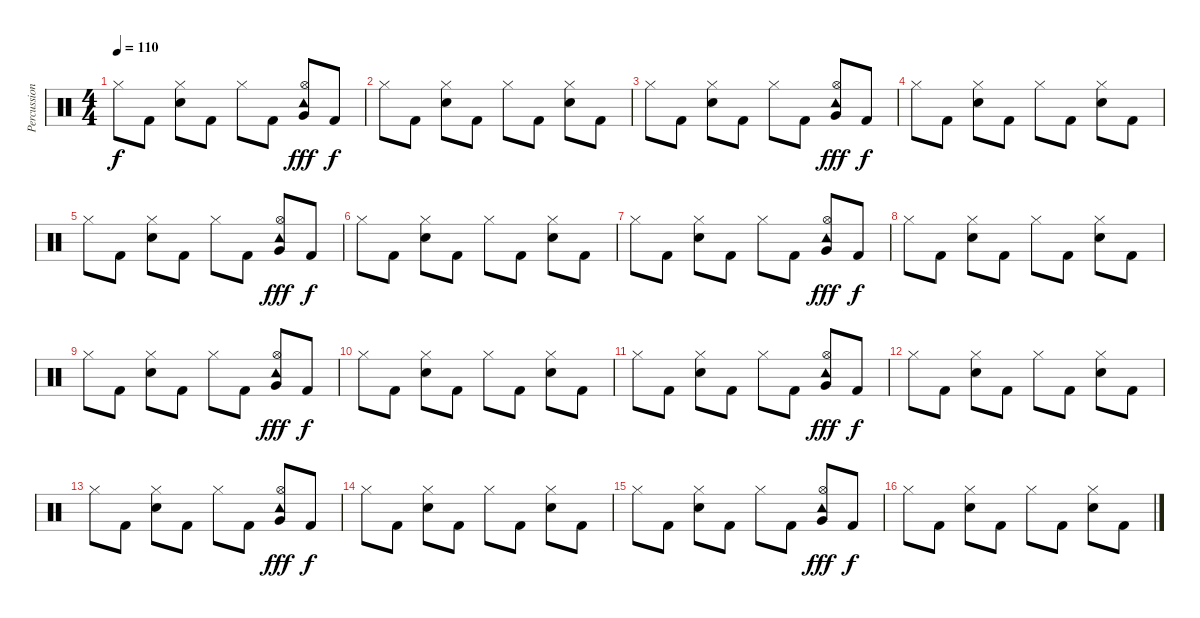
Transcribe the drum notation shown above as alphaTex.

\track ("Percussion" "Percussion") {instrument percussion}
\staff {score}
\articulation defaults
\ts (4 4)
\tempo 110
\clef neutral
\ks aminor "Hi-Hat (closed)".8{dy f} "Kick (hit) 2".8
("Hi-Hat (closed)" "Electric Snare (hit)").8 "Kick (hit) 2".8 "Hi-Hat (closed)".8 "Kick (hit) 2".8 ("Tambourine (hit)" "Hi-Hat (open)" "Very Low Tom (hit)").8{dy fff} "Kick (hit) 2".8{dy f} |
"Hi-Hat (closed)".8 "Kick (hit) 2".8 ("Hi-Hat (closed)" "Electric Snare (hit)").8 "Kick (hit) 2".8 "Hi-Hat (closed)".8 "Kick (hit) 2".8 ("Hi-Hat (closed)" "Electric Snare (hit)").8 "Kick (hit) 2".8 |
"Hi-Hat (closed)".8 "Kick (hit) 2".8 ("Hi-Hat (closed)" "Electric Snare (hit)").8 "Kick (hit) 2".8 "Hi-Hat (closed)".8 "Kick (hit) 2".8 ("Tambourine (hit)" "Hi-Hat (open)" "Very Low Tom (hit)").8{dy fff} "Kick (hit) 2".8{dy f} |
"Hi-Hat (closed)".8 "Kick (hit) 2".8 ("Hi-Hat (closed)" "Electric Snare (hit)").8 "Kick (hit) 2".8 "Hi-Hat (closed)".8 "Kick (hit) 2".8 ("Hi-Hat (closed)" "Electric Snare (hit)").8 "Kick (hit) 2".8 |
"Hi-Hat (closed)".8 "Kick (hit) 2".8 ("Hi-Hat (closed)" "Electric Snare (hit)").8 "Kick (hit) 2".8 "Hi-Hat (closed)".8 "Kick (hit) 2".8 ("Tambourine (hit)" "Hi-Hat (open)" "Very Low Tom (hit)").8{dy fff} "Kick (hit) 2".8{dy f} |
"Hi-Hat (closed)".8 "Kick (hit) 2".8 ("Hi-Hat (closed)" "Electric Snare (hit)").8 "Kick (hit) 2".8 "Hi-Hat (closed)".8 "Kick (hit) 2".8 ("Hi-Hat (closed)" "Electric Snare (hit)").8 "Kick (hit) 2".8 |
"Hi-Hat (closed)".8 "Kick (hit) 2".8 ("Hi-Hat (closed)" "Electric Snare (hit)").8 "Kick (hit) 2".8 "Hi-Hat (closed)".8 "Kick (hit) 2".8 ("Tambourine (hit)" "Hi-Hat (open)" "Very Low Tom (hit)").8{dy fff} "Kick (hit) 2".8{dy f} |
"Hi-Hat (closed)".8 "Kick (hit) 2".8 ("Hi-Hat (closed)" "Electric Snare (hit)").8 "Kick (hit) 2".8 "Hi-Hat (closed)".8 "Kick (hit) 2".8 ("Hi-Hat (closed)" "Electric Snare (hit)").8 "Kick (hit) 2".8 |
"Hi-Hat (closed)".8 "Kick (hit) 2".8 ("Hi-Hat (closed)" "Electric Snare (hit)").8 "Kick (hit) 2".8 "Hi-Hat (closed)".8 "Kick (hit) 2".8 ("Tambourine (hit)" "Hi-Hat (open)" "Very Low Tom (hit)").8{dy fff} "Kick (hit) 2".8{dy f} |
"Hi-Hat (closed)".8{volume 4} "Kick (hit) 2".8 ("Hi-Hat (closed)" "Electric Snare (hit)").8 "Kick (hit) 2".8 "Hi-Hat (closed)".8 "Kick (hit) 2".8 ("Hi-Hat (closed)" "Electric Snare (hit)").8 "Kick (hit) 2".8 |
"Hi-Hat (closed)".8 "Kick (hit) 2".8 ("Hi-Hat (closed)" "Electric Snare (hit)").8 "Kick (hit) 2".8 "Hi-Hat (closed)".8 "Kick (hit) 2".8 ("Tambourine (hit)" "Hi-Hat (open)" "Very Low Tom (hit)").8{dy fff} "Kick (hit) 2".8{dy f} |
"Hi-Hat (closed)".8 "Kick (hit) 2".8 ("Hi-Hat (closed)" "Electric Snare (hit)").8 "Kick (hit) 2".8 "Hi-Hat (closed)".8 "Kick (hit) 2".8 ("Hi-Hat (closed)" "Electric Snare (hit)").8 "Kick (hit) 2".8 |
"Hi-Hat (closed)".8 "Kick (hit) 2".8 ("Hi-Hat (closed)" "Electric Snare (hit)").8 "Kick (hit) 2".8 "Hi-Hat (closed)".8 "Kick (hit) 2".8 ("Tambourine (hit)" "Hi-Hat (open)" "Very Low Tom (hit)").8{dy fff} "Kick (hit) 2".8{dy f} |
"Hi-Hat (closed)".8{volume 0} "Kick (hit) 2".8 ("Hi-Hat (closed)" "Electric Snare (hit)").8 "Kick (hit) 2".8 "Hi-Hat (closed)".8 "Kick (hit) 2".8 ("Hi-Hat (closed)" "Electric Snare (hit)").8 "Kick (hit) 2".8 |
"Hi-Hat (closed)".8 "Kick (hit) 2".8 ("Hi-Hat (closed)" "Electric Snare (hit)").8 "Kick (hit) 2".8 "Hi-Hat (closed)".8 "Kick (hit) 2".8 ("Tambourine (hit)" "Hi-Hat (open)" "Very Low Tom (hit)").8{dy fff} "Kick (hit) 2".8{dy f} |
"Hi-Hat (closed)".8 "Kick (hit) 2".8 ("Hi-Hat (closed)" "Electric Snare (hit)").8 "Kick (hit) 2".8 "Hi-Hat (closed)".8 "Kick (hit) 2".8 ("Hi-Hat (closed)" "Electric Snare (hit)").8 "Kick (hit) 2".8
